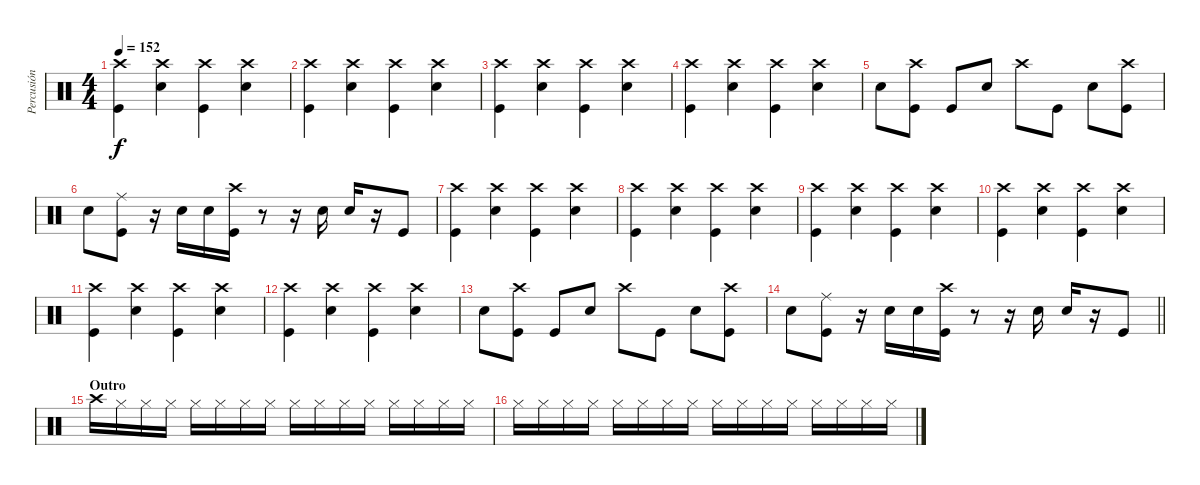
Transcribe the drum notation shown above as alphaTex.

\track ("Percusión" "Percusión") {instrument percussion}
\staff {score}
\articulation defaults
\ts (4 4)
\tempo 152
\clef neutral
\ks c
("Crash high (hit)" "Kick (hit)").4{dy f} ("Snare (hit) 2" "Crash high (hit)").4 ("Crash high (hit)" "Kick (hit)").4 ("Crash high (hit)" "Snare (hit) 2").4 |
("Crash high (hit)" "Kick (hit)").4 ("Crash high (hit)" "Snare (hit) 2").4 ("Crash high (hit)" "Kick (hit)").4 ("Crash high (hit)" "Snare (hit) 2").4 |
("Crash high (hit)" "Kick (hit)").4 ("Crash high (hit)" "Snare (hit) 2").4 ("Crash high (hit)" "Kick (hit)").4 ("Crash high (hit)" "Snare (hit) 2").4 |
("Crash high (hit)" "Kick (hit)").4 ("Crash high (hit)" "Snare (hit) 2").4 ("Crash high (hit)" "Kick (hit)").4 ("Crash high (hit)" "Snare (hit) 2").4 |
"Snare (hit) 2".8 ("Kick (hit)" "Crash high (hit)").8 "Kick (hit)".8 "Snare (hit) 2".8 "Crash high (hit)".8 "Kick (hit)".8 "Snare (hit) 2".8 ("Kick (hit)" "Crash high (hit)").8 |
"Snare (hit) 2".8 ("Kick (hit)" "Ride (middle)").8 r.16 "Snare (hit) 2".16 "Snare (hit) 2".16 ("Kick (hit)" "Crash high (hit)").16 r.8 r.16 "Snare (hit) 2".16 "Snare (hit) 2".16 r.16 "Kick (hit)".8 |
("Crash high (hit)" "Kick (hit)").4 ("Snare (hit) 2" "Crash high (hit)").4 ("Crash high (hit)" "Kick (hit)").4 ("Crash high (hit)" "Snare (hit) 2").4 |
("Crash high (hit)" "Kick (hit)").4 ("Crash high (hit)" "Snare (hit) 2").4 ("Crash high (hit)" "Kick (hit)").4 ("Crash high (hit)" "Snare (hit) 2").4 |
("Crash high (hit)" "Kick (hit)").4 ("Crash high (hit)" "Snare (hit) 2").4 ("Crash high (hit)" "Kick (hit)").4 ("Crash high (hit)" "Snare (hit) 2").4 |
("Crash high (hit)" "Kick (hit)").4 ("Crash high (hit)" "Snare (hit) 2").4 ("Crash high (hit)" "Kick (hit)").4 ("Crash high (hit)" "Snare (hit) 2").4 |
("Kick (hit)" "Crash high (hit)").4 ("Crash high (hit)" "Snare (hit) 2").4 ("Crash high (hit)" "Kick (hit)").4 ("Crash high (hit)" "Snare (hit) 2").4 |
("Crash high (hit)" "Kick (hit)").4 ("Crash high (hit)" "Snare (hit) 2").4 ("Crash high (hit)" "Kick (hit)").4 ("Crash high (hit)" "Snare (hit) 2").4 |
"Snare (hit) 2".8 ("Kick (hit)" "Crash high (hit)").8 "Kick (hit)".8 "Snare (hit) 2".8 "Crash high (hit)".8 "Kick (hit)".8 "Snare (hit) 2".8 ("Kick (hit)" "Crash high (hit)").8 |
\barLineRight lightlight "Snare (hit) 2".8
("Kick (hit)" "Ride (middle)").8 r.16 "Snare (hit) 2".16 "Snare (hit) 2".16 ("Kick (hit)" "Crash high (hit)").16 r.8 r.16 "Snare (hit) 2".16 "Snare (hit) 2".16 r.16 "Kick (hit)".8 |
\section ("" "Outro")
"Crash high (hit)".16 "Hi-Hat (closed)".16 "Hi-Hat (closed)".16 "Hi-Hat (closed)".16 "Hi-Hat (closed)".16 "Hi-Hat (closed)".16 "Hi-Hat (closed)".16 "Hi-Hat (closed)".16 "Hi-Hat (closed)".16 "Hi-Hat (closed)".16 "Hi-Hat (closed)".16 "Hi-Hat (closed)".16 "Hi-Hat (closed)".16 "Hi-Hat (closed)".16 "Hi-Hat (closed)".16 "Hi-Hat (closed)".16 |
"Hi-Hat (closed)".16 "Hi-Hat (closed)".16 "Hi-Hat (closed)".16 "Hi-Hat (closed)".16 "Hi-Hat (closed)".16 "Hi-Hat (closed)".16 "Hi-Hat (closed)".16 "Hi-Hat (closed)".16 "Hi-Hat (closed)".16 "Hi-Hat (closed)".16 "Hi-Hat (closed)".16 "Hi-Hat (closed)".16 "Hi-Hat (closed)".16 "Hi-Hat (closed)".16 "Hi-Hat (closed)".16 "Hi-Hat (closed)".16
